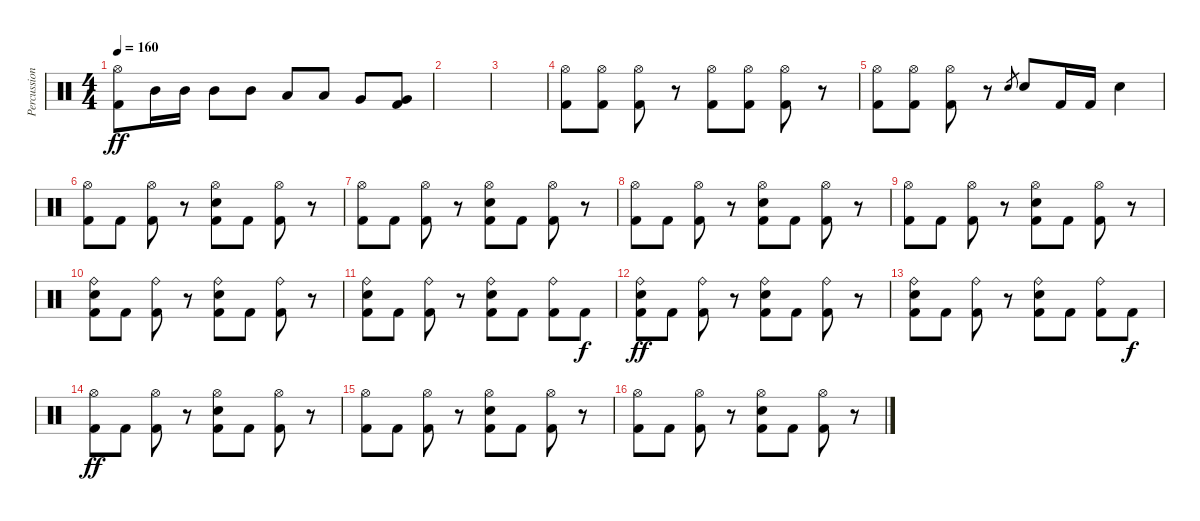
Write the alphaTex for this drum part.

\track ("Percussion" "Percussion") {instrument percussion}
\staff {score}
\articulation defaults
\ts (4 4)
\tempo 160
\clef neutral
\ks c
("Hi-Hat (open)" "Kick (hit) 2").8{dy ff} "Mid Tom (hit)".16 "Mid Tom (hit)".16 "Mid Tom (hit)".8 "Mid Tom (hit)".8 "Low Tom (hit)".8 "Low Tom (hit)".8 "Very Low Tom (hit)".8 ("Very Low Tom (hit)" "Kick (hit) 2").8 |
|
|
("Hi-Hat (open)" "Kick (hit) 2").8 ("Hi-Hat (open)" "Kick (hit) 2").8 ("Hi-Hat (open)" "Kick (hit) 2").8 r.8 ("Hi-Hat (open)" "Kick (hit) 2").8 ("Hi-Hat (open)" "Kick (hit) 2").8 ("Hi-Hat (open)" "Kick (hit) 2").8 r.8 |
("Hi-Hat (open)" "Kick (hit) 2").8 ("Hi-Hat (open)" "Kick (hit) 2").8 ("Hi-Hat (open)" "Kick (hit) 2").8 r.8 "Electric Snare (hit)".8{gr} "Electric Snare (hit)".8 "Kick (hit) 2".16 "Kick (hit) 2".16 "Electric Snare (hit)".4 |
("Hi-Hat (open)" "Kick (hit) 2").8 "Kick (hit) 2".8 ("Hi-Hat (open)" "Kick (hit) 2").8 r.8 ("Hi-Hat (open)" "Electric Snare (hit)" "Kick (hit) 2").8 "Kick (hit) 2".8 ("Hi-Hat (open)" "Kick (hit) 2").8 r.8 |
("Hi-Hat (open)" "Kick (hit) 2").8 "Kick (hit) 2".8 ("Hi-Hat (open)" "Kick (hit) 2").8 r.8 ("Hi-Hat (open)" "Electric Snare (hit)" "Kick (hit) 2").8 "Kick (hit) 2".8 ("Hi-Hat (open)" "Kick (hit) 2").8 r.8 |
("Hi-Hat (open)" "Kick (hit) 2").8 "Kick (hit) 2".8 ("Hi-Hat (open)" "Kick (hit) 2").8 r.8 ("Hi-Hat (open)" "Electric Snare (hit)" "Kick (hit) 2").8 "Kick (hit) 2".8 ("Hi-Hat (open)" "Kick (hit) 2").8 r.8 |
("Hi-Hat (open)" "Kick (hit) 2").8 "Kick (hit) 2".8 ("Hi-Hat (open)" "Kick (hit) 2").8 r.8 ("Hi-Hat (open)" "Electric Snare (hit)" "Kick (hit) 2").8 "Kick (hit) 2".8 ("Hi-Hat (open)" "Kick (hit) 2").8 r.8 |
("Ride (bell)" "Electric Snare (hit)" "Kick (hit) 2").8 "Kick (hit) 2".8 ("Ride (bell)" "Kick (hit) 2").8 r.8 ("Ride (bell)" "Electric Snare (hit)" "Kick (hit) 2").8 "Kick (hit) 2".8 ("Ride (bell)" "Kick (hit) 2").8 r.8 |
("Ride (bell)" "Electric Snare (hit)" "Kick (hit) 2").8 "Kick (hit) 2".8 ("Ride (bell)" "Kick (hit) 2").8 r.8 ("Ride (bell)" "Electric Snare (hit)" "Kick (hit) 2").8 "Kick (hit) 2".8 ("Ride (bell)" "Kick (hit) 2").8 "Kick (hit) 2".8{dy f} |
("Ride (bell)" "Electric Snare (hit)" "Kick (hit) 2").8{dy ff} "Kick (hit) 2".8 ("Ride (bell)" "Kick (hit) 2").8 r.8 ("Ride (bell)" "Electric Snare (hit)" "Kick (hit) 2").8 "Kick (hit) 2".8 ("Ride (bell)" "Kick (hit) 2").8 r.8 |
("Ride (bell)" "Electric Snare (hit)" "Kick (hit) 2").8 "Kick (hit) 2".8 ("Ride (bell)" "Kick (hit) 2").8 r.8 ("Ride (bell)" "Electric Snare (hit)" "Kick (hit) 2").8 "Kick (hit) 2".8 ("Ride (bell)" "Kick (hit) 2").8 "Kick (hit) 2".8{dy f} |
("Hi-Hat (open)" "Kick (hit) 2").8{dy ff} "Kick (hit) 2".8 ("Hi-Hat (open)" "Kick (hit) 2").8 r.8 ("Hi-Hat (open)" "Electric Snare (hit)" "Kick (hit) 2").8 "Kick (hit) 2".8 ("Hi-Hat (open)" "Kick (hit) 2").8 r.8 |
("Hi-Hat (open)" "Kick (hit) 2").8 "Kick (hit) 2".8 ("Hi-Hat (open)" "Kick (hit) 2").8 r.8 ("Hi-Hat (open)" "Electric Snare (hit)" "Kick (hit) 2").8 "Kick (hit) 2".8 ("Hi-Hat (open)" "Kick (hit) 2").8 r.8 |
("Hi-Hat (open)" "Kick (hit) 2").8 "Kick (hit) 2".8 ("Hi-Hat (open)" "Kick (hit) 2").8 r.8 ("Hi-Hat (open)" "Electric Snare (hit)" "Kick (hit) 2").8 "Kick (hit) 2".8 ("Hi-Hat (open)" "Kick (hit) 2").8 r.8
